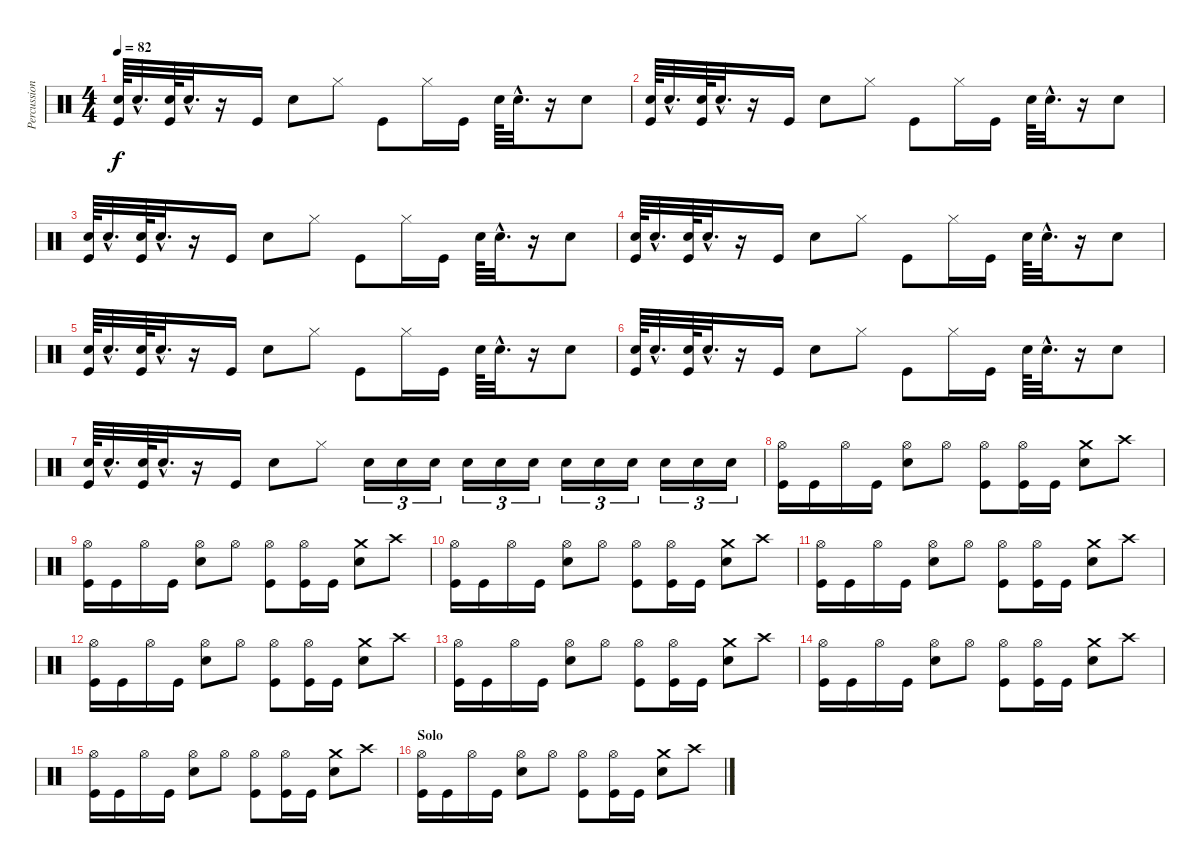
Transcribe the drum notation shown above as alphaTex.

\track ("Percussion" "Percussion") {instrument percussion}
\staff {score}
\articulation defaults
\ts (4 4)
\tempo 82
\clef neutral
\ks c
("Snare (hit) 2" "Kick (hit)").64{dy f} "Snare (hit) 2"{hac}.32{d} ("Snare (hit) 2" "Kick (hit)").64 "Snare (hit) 2"{hac}.32{d} r.16 "Kick (hit)".16 "Snare (hit) 2".8 "Hi-Hat (closed)".8 "Kick (hit)".8 "Hi-Hat (closed)".16 "Kick (hit)".16 "Snare (hit) 2".64 "Snare (hit) 2"{hac}.32{d} r.16 "Snare (hit) 2".8 |
("Snare (hit) 2" "Kick (hit)").64 "Snare (hit) 2"{hac}.32{d} ("Snare (hit) 2" "Kick (hit)").64 "Snare (hit) 2"{hac}.32{d} r.16 "Kick (hit)".16 "Snare (hit) 2".8 "Hi-Hat (closed)".8 "Kick (hit)".8 "Hi-Hat (closed)".16 "Kick (hit)".16 "Snare (hit) 2".64 "Snare (hit) 2"{hac}.32{d} r.16 "Snare (hit) 2".8 |
("Snare (hit) 2" "Kick (hit)").64 "Snare (hit) 2"{hac}.32{d} ("Snare (hit) 2" "Kick (hit)").64 "Snare (hit) 2"{hac}.32{d} r.16 "Kick (hit)".16 "Snare (hit) 2".8 "Hi-Hat (closed)".8 "Kick (hit)".8 "Hi-Hat (closed)".16 "Kick (hit)".16 "Snare (hit) 2".64 "Snare (hit) 2"{hac}.32{d} r.16 "Snare (hit) 2".8 |
("Snare (hit) 2" "Kick (hit)").64 "Snare (hit) 2"{hac}.32{d} ("Snare (hit) 2" "Kick (hit)").64 "Snare (hit) 2"{hac}.32{d} r.16 "Kick (hit)".16 "Snare (hit) 2".8 "Hi-Hat (closed)".8 "Kick (hit)".8 "Hi-Hat (closed)".16 "Kick (hit)".16 "Snare (hit) 2".64 "Snare (hit) 2"{hac}.32{d} r.16 "Snare (hit) 2".8 |
("Snare (hit) 2" "Kick (hit)").64 "Snare (hit) 2"{hac}.32{d} ("Snare (hit) 2" "Kick (hit)").64 "Snare (hit) 2"{hac}.32{d} r.16 "Kick (hit)".16 "Snare (hit) 2".8 "Hi-Hat (closed)".8 "Kick (hit)".8 "Hi-Hat (closed)".16 "Kick (hit)".16 "Snare (hit) 2".64 "Snare (hit) 2"{hac}.32{d} r.16 "Snare (hit) 2".8 |
("Snare (hit) 2" "Kick (hit)").64 "Snare (hit) 2"{hac}.32{d} ("Snare (hit) 2" "Kick (hit)").64 "Snare (hit) 2"{hac}.32{d} r.16 "Kick (hit)".16 "Snare (hit) 2".8 "Hi-Hat (closed)".8 "Kick (hit)".8 "Hi-Hat (closed)".16 "Kick (hit)".16 "Snare (hit) 2".64 "Snare (hit) 2"{hac}.32{d} r.16 "Snare (hit) 2".8 |
("Snare (hit) 2" "Kick (hit)").64 "Snare (hit) 2"{hac}.32{d} ("Snare (hit) 2" "Kick (hit)").64 "Snare (hit) 2"{hac}.32{d} r.16 "Kick (hit)".16 "Snare (hit) 2".8 "Hi-Hat (closed)".8 "Snare (hit) 2".16{tu (3 2)} "Snare (hit) 2".16{tu (3 2)} "Snare (hit) 2".16{tu (3 2)} "Snare (hit) 2".16{tu (3 2)} "Snare (hit) 2".16{tu (3 2)} "Snare (hit) 2".16{tu (3 2)} "Snare (hit) 2".16{tu (3 2)} "Snare (hit) 2".16{tu (3 2)} "Snare (hit) 2".16{tu (3 2)} "Snare (hit) 2".16{tu (3 2)} "Snare (hit) 2".16{tu (3 2)} "Snare (hit) 2".16{tu (3 2)} |
("Hi-Hat (open)" "Kick (hit)").16 "Kick (hit)".16 "Hi-Hat (open)".16 "Kick (hit)".16 ("Hi-Hat (open)" "Snare (hit) 2").8 "Hi-Hat (open)".8 ("Hi-Hat (open)" "Kick (hit)").8 ("Hi-Hat (open)" "Kick (hit)").16 "Kick (hit)".16 ("Crash medium (hit)" "Snare (hit) 2").8 "Crash high (hit)".8 |
("Hi-Hat (open)" "Kick (hit)").16 "Kick (hit)".16 "Hi-Hat (open)".16 "Kick (hit)".16 ("Hi-Hat (open)" "Snare (hit) 2").8 "Hi-Hat (open)".8 ("Hi-Hat (open)" "Kick (hit)").8 ("Hi-Hat (open)" "Kick (hit)").16 "Kick (hit)".16 ("Crash medium (hit)" "Snare (hit) 2").8 "Crash high (hit)".8 |
("Hi-Hat (open)" "Kick (hit)").16 "Kick (hit)".16 "Hi-Hat (open)".16 "Kick (hit)".16 ("Hi-Hat (open)" "Snare (hit) 2").8 "Hi-Hat (open)".8 ("Hi-Hat (open)" "Kick (hit)").8 ("Hi-Hat (open)" "Kick (hit)").16 "Kick (hit)".16 ("Crash medium (hit)" "Snare (hit) 2").8 "Crash high (hit)".8 |
("Hi-Hat (open)" "Kick (hit)").16 "Kick (hit)".16 "Hi-Hat (open)".16 "Kick (hit)".16 ("Hi-Hat (open)" "Snare (hit) 2").8 "Hi-Hat (open)".8 ("Hi-Hat (open)" "Kick (hit)").8 ("Hi-Hat (open)" "Kick (hit)").16 "Kick (hit)".16 ("Crash medium (hit)" "Snare (hit) 2").8 "Crash high (hit)".8 |
("Hi-Hat (open)" "Kick (hit)").16 "Kick (hit)".16 "Hi-Hat (open)".16 "Kick (hit)".16 ("Hi-Hat (open)" "Snare (hit) 2").8 "Hi-Hat (open)".8 ("Hi-Hat (open)" "Kick (hit)").8 ("Hi-Hat (open)" "Kick (hit)").16 "Kick (hit)".16 ("Crash medium (hit)" "Snare (hit) 2").8 "Crash high (hit)".8 |
("Hi-Hat (open)" "Kick (hit)").16 "Kick (hit)".16 "Hi-Hat (open)".16 "Kick (hit)".16 ("Hi-Hat (open)" "Snare (hit) 2").8 "Hi-Hat (open)".8 ("Hi-Hat (open)" "Kick (hit)").8 ("Hi-Hat (open)" "Kick (hit)").16 "Kick (hit)".16 ("Crash medium (hit)" "Snare (hit) 2").8 "Crash high (hit)".8 |
("Hi-Hat (open)" "Kick (hit)").16 "Kick (hit)".16 "Hi-Hat (open)".16 "Kick (hit)".16 ("Hi-Hat (open)" "Snare (hit) 2").8 "Hi-Hat (open)".8 ("Hi-Hat (open)" "Kick (hit)").8 ("Hi-Hat (open)" "Kick (hit)").16 "Kick (hit)".16 ("Crash medium (hit)" "Snare (hit) 2").8 "Crash high (hit)".8 |
("Hi-Hat (open)" "Kick (hit)").16 "Kick (hit)".16 "Hi-Hat (open)".16 "Kick (hit)".16 ("Hi-Hat (open)" "Snare (hit) 2").8 "Hi-Hat (open)".8 ("Hi-Hat (open)" "Kick (hit)").8 ("Hi-Hat (open)" "Kick (hit)").16 "Kick (hit)".16 ("Crash medium (hit)" "Snare (hit) 2").8 "Crash high (hit)".8 |
\section ("" "Solo")
("Hi-Hat (open)" "Kick (hit)").16 "Kick (hit)".16 "Hi-Hat (open)".16 "Kick (hit)".16 ("Hi-Hat (open)" "Snare (hit) 2").8 "Hi-Hat (open)".8 ("Hi-Hat (open)" "Kick (hit)").8 ("Hi-Hat (open)" "Kick (hit)").16 "Kick (hit)".16 ("Crash medium (hit)" "Snare (hit) 2").8 "Crash high (hit)".8
